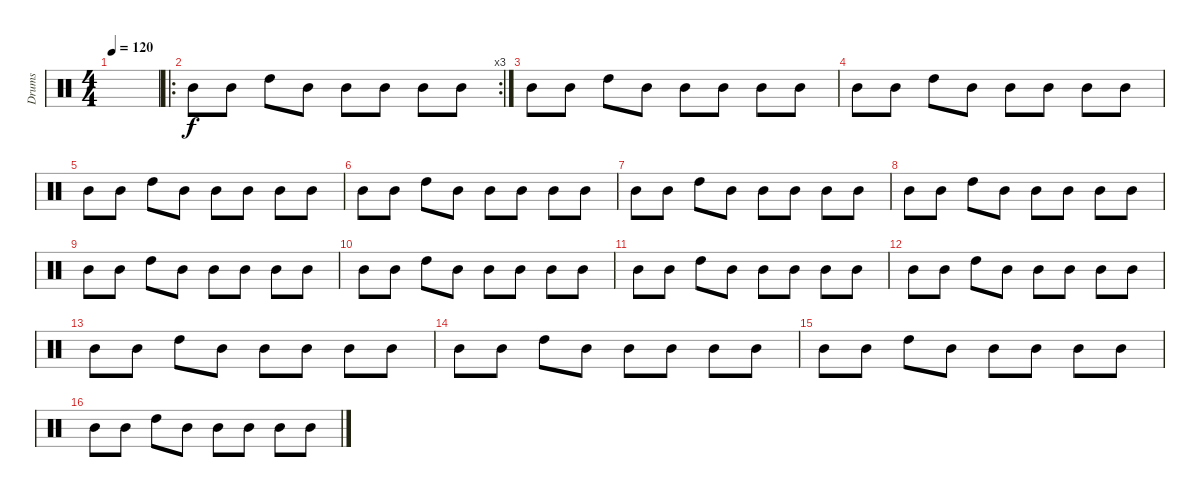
\track ("Drums" "Drums") {instrument percussion}
\staff {score}
\articulation defaults
\ts (4 4)
\tempo 120
\clef neutral
\ks c
|
\ro
\rc 3 "Mid Tom (hit)".8{volume 6} "Mid Tom (hit)".8 "High Tom (hit)".8 "Mid Tom (hit)".8 "Mid Tom (hit)".8 "Mid Tom (hit)".8 "Mid Tom (hit)".8 "Mid Tom (hit)".8
|
"Mid Tom (hit)".8 "Mid Tom (hit)".8 "High Tom (hit)".8 "Mid Tom (hit)".8 "Mid Tom (hit)".8 "Mid Tom (hit)".8 "Mid Tom (hit)".8 "Mid Tom (hit)".8 |
"Mid Tom (hit)".8 "Mid Tom (hit)".8 "High Tom (hit)".8 "Mid Tom (hit)".8 "Mid Tom (hit)".8 "Mid Tom (hit)".8 "Mid Tom (hit)".8 "Mid Tom (hit)".8 |
"Mid Tom (hit)".8 "Mid Tom (hit)".8 "High Tom (hit)".8 "Mid Tom (hit)".8 "Mid Tom (hit)".8 "Mid Tom (hit)".8 "Mid Tom (hit)".8 "Mid Tom (hit)".8 |
"Mid Tom (hit)".8 "Mid Tom (hit)".8 "High Tom (hit)".8 "Mid Tom (hit)".8 "Mid Tom (hit)".8 "Mid Tom (hit)".8 "Mid Tom (hit)".8 "Mid Tom (hit)".8 |
"Mid Tom (hit)".8 "Mid Tom (hit)".8 "High Tom (hit)".8 "Mid Tom (hit)".8 "Mid Tom (hit)".8 "Mid Tom (hit)".8 "Mid Tom (hit)".8 "Mid Tom (hit)".8 |
"Mid Tom (hit)".8 "Mid Tom (hit)".8 "High Tom (hit)".8 "Mid Tom (hit)".8 "Mid Tom (hit)".8 "Mid Tom (hit)".8 "Mid Tom (hit)".8 "Mid Tom (hit)".8 |
"Mid Tom (hit)".8 "Mid Tom (hit)".8 "High Tom (hit)".8 "Mid Tom (hit)".8 "Mid Tom (hit)".8 "Mid Tom (hit)".8 "Mid Tom (hit)".8 "Mid Tom (hit)".8 |
"Mid Tom (hit)".8 "Mid Tom (hit)".8 "High Tom (hit)".8 "Mid Tom (hit)".8 "Mid Tom (hit)".8 "Mid Tom (hit)".8 "Mid Tom (hit)".8 "Mid Tom (hit)".8 |
"Mid Tom (hit)".8 "Mid Tom (hit)".8 "High Tom (hit)".8 "Mid Tom (hit)".8 "Mid Tom (hit)".8 "Mid Tom (hit)".8 "Mid Tom (hit)".8 "Mid Tom (hit)".8 |
"Mid Tom (hit)".8 "Mid Tom (hit)".8 "High Tom (hit)".8 "Mid Tom (hit)".8 "Mid Tom (hit)".8 "Mid Tom (hit)".8 "Mid Tom (hit)".8 "Mid Tom (hit)".8 |
"Mid Tom (hit)".8 "Mid Tom (hit)".8 "High Tom (hit)".8 "Mid Tom (hit)".8 "Mid Tom (hit)".8 "Mid Tom (hit)".8 "Mid Tom (hit)".8 "Mid Tom (hit)".8 |
"Mid Tom (hit)".8 "Mid Tom (hit)".8 "High Tom (hit)".8 "Mid Tom (hit)".8 "Mid Tom (hit)".8 "Mid Tom (hit)".8 "Mid Tom (hit)".8 "Mid Tom (hit)".8 |
"Mid Tom (hit)".8 "Mid Tom (hit)".8 "High Tom (hit)".8 "Mid Tom (hit)".8 "Mid Tom (hit)".8 "Mid Tom (hit)".8 "Mid Tom (hit)".8 "Mid Tom (hit)".8 |
"Mid Tom (hit)".8 "Mid Tom (hit)".8 "High Tom (hit)".8 "Mid Tom (hit)".8 "Mid Tom (hit)".8 "Mid Tom (hit)".8 "Mid Tom (hit)".8 "Mid Tom (hit)".8
